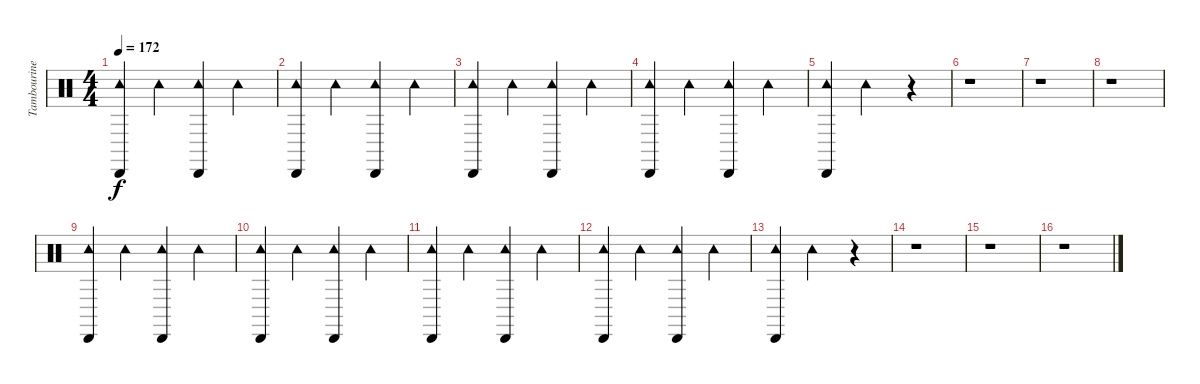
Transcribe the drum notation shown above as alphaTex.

\track ("Tambourine" "Tambourine") {instrument percussion}
\staff {score}
\articulation defaults
\ts (4 4)
\tempo 172
\clef neutral
\ks c
("Tambourine (hit)" "Cabasa (hit)").4{dy f} "Tambourine (hit)".4 ("Tambourine (hit)" "Cabasa (hit)").4 "Tambourine (hit)".4 |
("Tambourine (hit)" "Cabasa (hit)").4 "Tambourine (hit)".4 ("Tambourine (hit)" "Cabasa (hit)").4 "Tambourine (hit)".4 |
("Tambourine (hit)" "Cabasa (hit)").4 "Tambourine (hit)".4 ("Tambourine (hit)" "Cabasa (hit)").4 "Tambourine (hit)".4 |
("Tambourine (hit)" "Cabasa (hit)").4 "Tambourine (hit)".4 ("Tambourine (hit)" "Cabasa (hit)").4 "Tambourine (hit)".4 |
("Tambourine (hit)" "Cabasa (hit)").4 "Tambourine (hit)".2 r.4 |
r.1 |
r.1 |
r.1 |
("Tambourine (hit)" "Cabasa (hit)").4 "Tambourine (hit)".4 ("Tambourine (hit)" "Cabasa (hit)").4 "Tambourine (hit)".4 |
("Tambourine (hit)" "Cabasa (hit)").4 "Tambourine (hit)".4 ("Tambourine (hit)" "Cabasa (hit)").4 "Tambourine (hit)".4 |
("Tambourine (hit)" "Cabasa (hit)").4 "Tambourine (hit)".4 ("Tambourine (hit)" "Cabasa (hit)").4 "Tambourine (hit)".4 |
("Tambourine (hit)" "Cabasa (hit)").4 "Tambourine (hit)".4 ("Tambourine (hit)" "Cabasa (hit)").4 "Tambourine (hit)".4 |
("Tambourine (hit)" "Cabasa (hit)").4 "Tambourine (hit)".2 r.4 |
r.1 |
r.1 |
r.1
